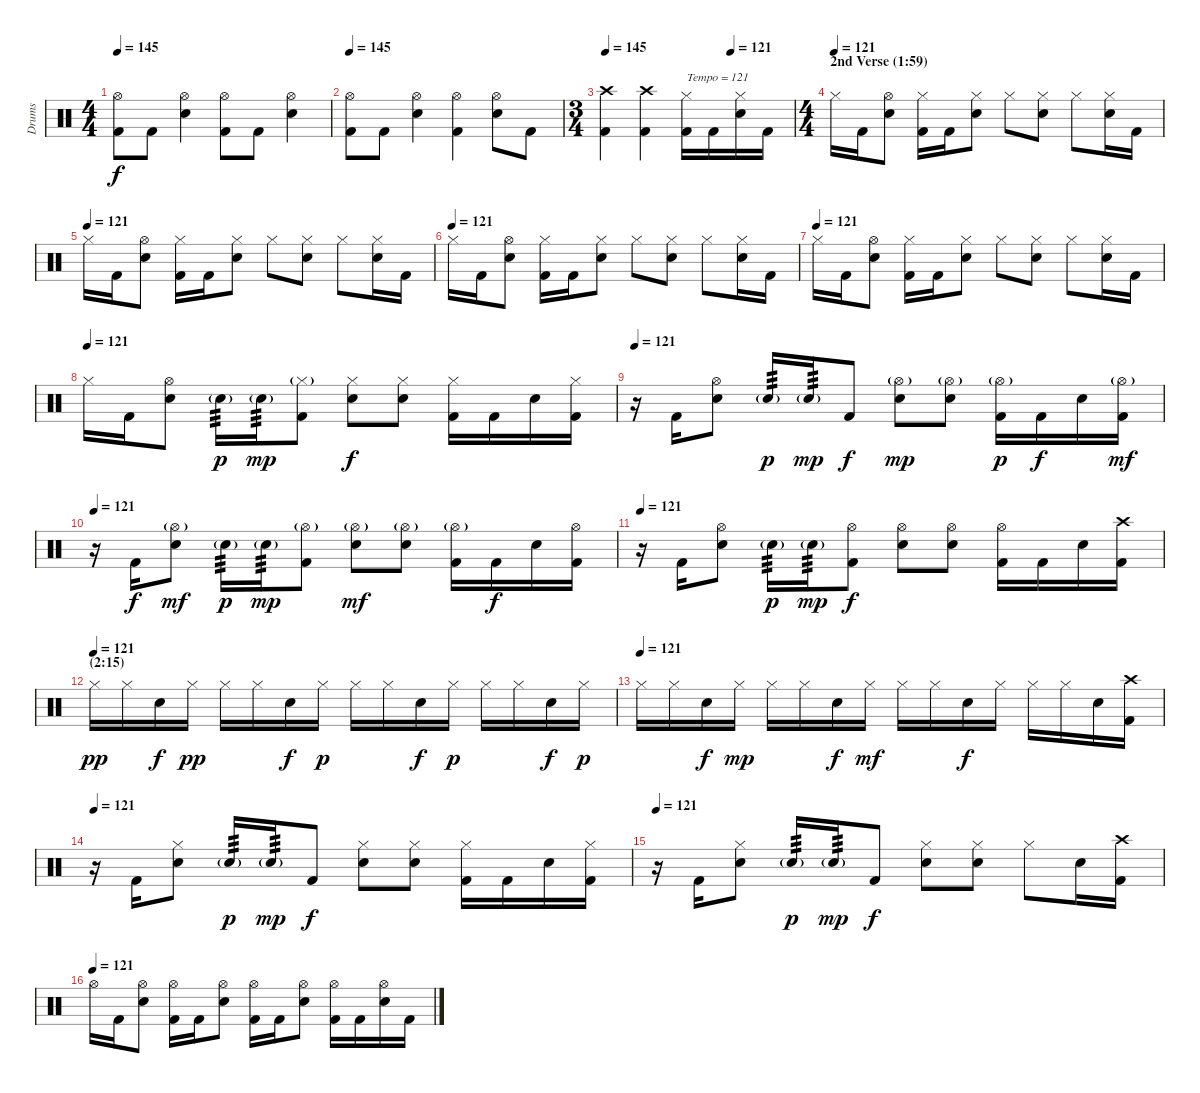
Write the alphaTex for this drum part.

\track ("Drums" "Drums") {instrument percussion}
\staff {score}
\articulation defaults
\ts (4 4)
\tempo 145
\clef neutral
\ks c
("Hi-Hat (open)" "Kick (hit) 2").8{dy f} "Kick (hit) 2".8 ("Hi-Hat (open)" "Snare (hit) 2").4 ("Hi-Hat (open)" "Kick (hit) 2").8 "Kick (hit) 2".8 ("Hi-Hat (open)" "Snare (hit) 2").4 |
\tempo 145
("Hi-Hat (open)" "Kick (hit) 2").8 "Kick (hit) 2".8 ("Hi-Hat (open)" "Snare (hit) 2").4 ("Hi-Hat (open)" "Kick (hit) 2").4 ("Hi-Hat (open)" "Snare (hit) 2").8 "Kick (hit) 2".8 |
\ts (3 4)
\tempo 145
\tempo (121 0.6666666666666666)
("Crash high (hit)" "Kick (hit) 2").4 ("Crash high (hit)" "Kick (hit) 2").4 ("Hi-Hat (closed)" "Kick (hit) 2").16{txt "Tempo = 121"} "Kick (hit) 2".16 ("Hi-Hat (closed)" "Snare (hit) 2").16 "Kick (hit) 2".16 |
\ts (4 4)
\section ("" "2nd Verse (1:59)")
\tempo (121)
"Hi-Hat (closed)".16 "Kick (hit) 2".16 ("Hi-Hat (open)" "Snare (hit) 2").8 ("Hi-Hat (closed)" "Kick (hit) 2").16 "Kick (hit) 2".16 ("Hi-Hat (closed)" "Snare (hit) 2").8 "Hi-Hat (closed)".8 ("Hi-Hat (closed)" "Snare (hit) 2").8 "Hi-Hat (closed)".8 ("Hi-Hat (closed)" "Snare (hit) 2").16 "Kick (hit) 2".16 |
\tempo (121)
"Hi-Hat (closed)".16 "Kick (hit) 2".16 ("Hi-Hat (open)" "Snare (hit) 2").8 ("Hi-Hat (closed)" "Kick (hit) 2").16 "Kick (hit) 2".16 ("Hi-Hat (closed)" "Snare (hit) 2").8 "Hi-Hat (closed)".8 ("Hi-Hat (closed)" "Snare (hit) 2").8 "Hi-Hat (closed)".8 ("Hi-Hat (closed)" "Snare (hit) 2").16 "Kick (hit) 2".16 |
\tempo (121)
"Hi-Hat (closed)".16 "Kick (hit) 2".16 ("Hi-Hat (open)" "Snare (hit) 2").8 ("Hi-Hat (closed)" "Kick (hit) 2").16 "Kick (hit) 2".16 ("Hi-Hat (closed)" "Snare (hit) 2").8 "Hi-Hat (closed)".8 ("Hi-Hat (closed)" "Snare (hit) 2").8 "Hi-Hat (closed)".8 ("Hi-Hat (closed)" "Snare (hit) 2").16 "Kick (hit) 2".16 |
\tempo (121)
"Hi-Hat (closed)".16 "Kick (hit) 2".16 ("Hi-Hat (open)" "Snare (hit) 2").8 ("Hi-Hat (closed)" "Kick (hit) 2").16 "Kick (hit) 2".16 ("Hi-Hat (closed)" "Snare (hit) 2").8 "Hi-Hat (closed)".8 ("Hi-Hat (closed)" "Snare (hit) 2").8 "Hi-Hat (closed)".8 ("Hi-Hat (closed)" "Snare (hit) 2").16 "Kick (hit) 2".16 |
\tempo (121)
"Hi-Hat (closed)".16 "Kick (hit) 2".16 ("Hi-Hat (open)" "Snare (hit) 2").8 "Snare (hit) 2"{g}.16{tp 3 dy p} "Snare (hit) 2"{g}.16{tp 3 dy mp} ("Hi-Hat (closed)"{g} "Kick (hit) 2").8 ("Hi-Hat (closed)" "Snare (hit) 2").8{dy f} ("Hi-Hat (closed)" "Snare (hit) 2").8 ("Hi-Hat (closed)" "Kick (hit) 2").16 "Kick (hit) 2".16 "Snare (hit) 2".16 ("Hi-Hat (closed)" "Kick (hit) 2").16 |
\tempo 121
r.16 "Kick (hit) 2".16 ("Hi-Hat (open)" "Snare (hit) 2").8 "Snare (hit) 2"{g}.16{tp 3 dy p} "Snare (hit) 2"{g}.16{tp 3 dy mp} "Kick (hit) 2".8{dy f} ("Hi-Hat (open)"{g} "Snare (hit) 2").8{dy mp} ("Hi-Hat (open)"{g} "Snare (hit) 2").8 ("Hi-Hat (open)"{g} "Kick (hit) 2").16{dy p} "Kick (hit) 2".16{dy f} "Snare (hit) 2".16 ("Hi-Hat (open)"{g} "Kick (hit) 2").16{dy mf} |
\tempo 121
r.16 "Kick (hit) 2".16{dy f} ("Hi-Hat (open)"{g} "Snare (hit) 2").8{dy mf} "Snare (hit) 2"{g}.16{tp 3 dy p} "Snare (hit) 2"{g}.16{tp 3 dy mp} ("Hi-Hat (open)"{g} "Kick (hit) 2").8 ("Hi-Hat (open)"{g} "Snare (hit) 2").8{dy mf} ("Hi-Hat (open)"{g} "Snare (hit) 2").8 ("Hi-Hat (open)"{g} "Kick (hit) 2").16 "Kick (hit) 2".16{dy f} "Snare (hit) 2".16 ("Hi-Hat (open)" "Kick (hit) 2").16 |
\tempo 121
r.16 "Kick (hit) 2".16 ("Hi-Hat (open)" "Snare (hit) 2").8 "Snare (hit) 2"{g}.16{tp 3 dy p} "Snare (hit) 2"{g}.16{tp 3 dy mp} ("Hi-Hat (open)" "Kick (hit) 2").8{dy f} ("Hi-Hat (open)" "Snare (hit) 2").8 ("Hi-Hat (open)" "Snare (hit) 2").8 ("Hi-Hat (open)" "Kick (hit) 2").16 "Kick (hit) 2".16 "Snare (hit) 2".16 ("Crash high (hit)" "Kick (hit) 2").16 |
\section ("" "(2:15)")
\tempo (121)
"Hi-Hat (closed)".16{dy pp} "Hi-Hat (closed)".16 "Snare (hit) 2".16{dy f} "Hi-Hat (closed)".16{dy pp} "Hi-Hat (closed)".16 "Hi-Hat (closed)".16 "Snare (hit) 2".16{dy f} "Hi-Hat (closed)".16{dy p} "Hi-Hat (closed)".16 "Hi-Hat (closed)".16 "Snare (hit) 2".16{dy f} "Hi-Hat (closed)".16{dy p} "Hi-Hat (closed)".16 "Hi-Hat (closed)".16 "Snare (hit) 2".16{dy f} "Hi-Hat (closed)".16{dy p} |
\tempo (121)
"Hi-Hat (closed)".16 "Hi-Hat (closed)".16 "Snare (hit) 2".16{dy f} "Hi-Hat (closed)".16{dy mp} "Hi-Hat (closed)".16 "Hi-Hat (closed)".16 "Snare (hit) 2".16{dy f} "Hi-Hat (closed)".16{dy mf} "Hi-Hat (closed)".16 "Hi-Hat (closed)".16 "Snare (hit) 2".16{dy f} "Hi-Hat (closed)".16 "Hi-Hat (closed)".16 "Hi-Hat (closed)".16 "Snare (hit) 2".16 ("Crash high (hit)" "Kick (hit) 2").16 |
\tempo 121
r.16 "Kick (hit) 2".16 ("Hi-Hat (closed)" "Snare (hit) 2").8 "Snare (hit) 2"{g}.16{tp 3 dy p} "Snare (hit) 2"{g}.16{tp 3 dy mp} "Kick (hit) 2".8{dy f} ("Hi-Hat (closed)" "Snare (hit) 2").8 ("Hi-Hat (closed)" "Snare (hit) 2").8 ("Hi-Hat (closed)" "Kick (hit) 2").16 "Kick (hit) 2".16 "Snare (hit) 2".16 ("Hi-Hat (closed)" "Kick (hit) 2").16 |
\tempo 121
r.16 "Kick (hit) 2".16 ("Hi-Hat (closed)" "Snare (hit) 2").8 "Snare (hit) 2"{g}.16{tp 3 dy p} "Snare (hit) 2"{g}.16{tp 3 dy mp} "Kick (hit) 2".8{dy f} ("Hi-Hat (closed)" "Snare (hit) 2").8 ("Hi-Hat (closed)" "Snare (hit) 2").8 "Hi-Hat (closed)".8 "Snare (hit) 2".16 ("Crash high (hit)" "Kick (hit) 2").16 |
\tempo (121)
"Hi-Hat (open)".16 "Kick (hit) 2".16 ("Hi-Hat (open)" "Snare (hit) 2").8 ("Hi-Hat (open)" "Kick (hit) 2").16 "Kick (hit) 2".16 ("Hi-Hat (open)" "Snare (hit) 2").8 ("Hi-Hat (open)" "Kick (hit) 2").16 "Kick (hit) 2".16 ("Hi-Hat (open)" "Snare (hit) 2").8 ("Hi-Hat (open)" "Kick (hit) 2").16 "Kick (hit) 2".16 ("Hi-Hat (open)" "Snare (hit) 2").16 "Kick (hit) 2".16
